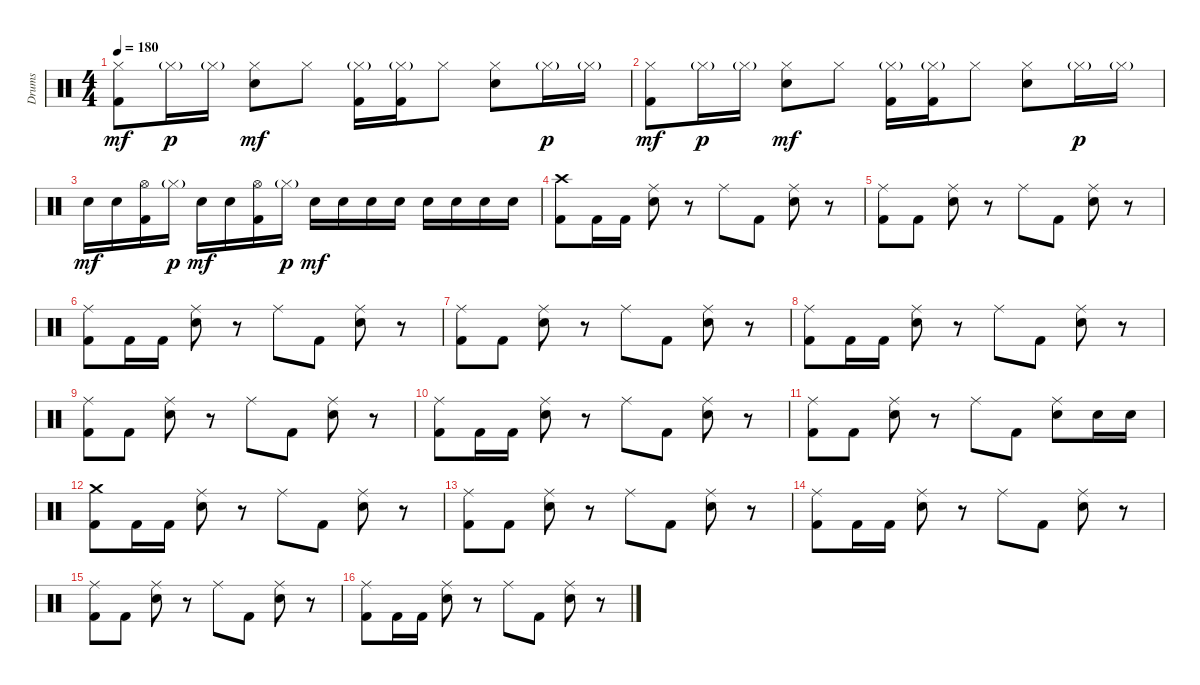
\track ("Drums" "Drums") {instrument percussion}
\staff {score}
\articulation defaults
\ts (4 4)
\tempo 180
\clef neutral
\ks c
("Hi-Hat (closed)" "Kick (hit) 2").8{dy mf} "Hi-Hat (closed)"{g}.16{dy p} "Hi-Hat (closed)"{g}.16 ("Hi-Hat (closed)" "Snare (hit) 2").8{dy mf} "Hi-Hat (closed)".8 ("Hi-Hat (closed)"{g} "Kick (hit) 2").16 ("Hi-Hat (closed)"{g} "Kick (hit) 2").16 "Hi-Hat (closed)".8 ("Hi-Hat (closed)" "Snare (hit) 2").8 "Hi-Hat (closed)"{g}.16{dy p} "Hi-Hat (closed)"{g}.16 |
("Hi-Hat (closed)" "Kick (hit) 2").8{dy mf} "Hi-Hat (closed)"{g}.16{dy p} "Hi-Hat (closed)"{g}.16 ("Hi-Hat (closed)" "Snare (hit) 2").8{dy mf} "Hi-Hat (closed)".8 ("Hi-Hat (closed)"{g} "Kick (hit) 2").16 ("Hi-Hat (closed)"{g} "Kick (hit) 2").16 "Hi-Hat (closed)".8 ("Hi-Hat (closed)" "Snare (hit) 2").8 "Hi-Hat (closed)"{g}.16{dy p} "Hi-Hat (closed)"{g}.16 |
"Snare (hit) 2".16{dy mf} "Snare (hit) 2".16 ("Hi-Hat (open)" "Kick (hit) 2").16 "Hi-Hat (closed)"{g}.16{dy p} "Snare (hit) 2".16{dy mf} "Snare (hit) 2".16 ("Hi-Hat (open)" "Kick (hit) 2").16 "Hi-Hat (closed)"{g}.16{dy p} "Snare (hit) 2".16{dy mf} "Snare (hit) 2".16 "Snare (hit) 2".16 "Snare (hit) 2".16 "Snare (hit) 2".16 "Snare (hit) 2".16 "Snare (hit) 2".16 "Snare (hit) 2".16 |
("Crash high (hit)" "Kick (hit) 2").8 "Kick (hit) 2".16 "Kick (hit) 2".16 ("Ride (middle)" "Snare (hit) 2").8 r.8 "Ride (middle)".8 "Kick (hit) 2".8 ("Ride (middle)" "Snare (hit) 2").8 r.8 |
("Ride (middle)" "Kick (hit) 2").8 "Kick (hit) 2".8 ("Ride (middle)" "Snare (hit) 2").8 r.8 "Ride (middle)".8 "Kick (hit) 2".8 ("Ride (middle)" "Snare (hit) 2").8 r.8 |
("Ride (middle)" "Kick (hit) 2").8 "Kick (hit) 2".16 "Kick (hit) 2".16 ("Ride (middle)" "Snare (hit) 2").8 r.8 "Ride (middle)".8 "Kick (hit) 2".8 ("Ride (middle)" "Snare (hit) 2").8 r.8 |
("Ride (middle)" "Kick (hit) 2").8 "Kick (hit) 2".8 ("Ride (middle)" "Snare (hit) 2").8 r.8 "Ride (middle)".8 "Kick (hit) 2".8 ("Ride (middle)" "Snare (hit) 2").8 r.8 |
("Ride (middle)" "Kick (hit) 2").8 "Kick (hit) 2".16 "Kick (hit) 2".16 ("Ride (middle)" "Snare (hit) 2").8 r.8 "Ride (middle)".8 "Kick (hit) 2".8 ("Ride (middle)" "Snare (hit) 2").8 r.8 |
("Ride (middle)" "Kick (hit) 2").8 "Kick (hit) 2".8 ("Ride (middle)" "Snare (hit) 2").8 r.8 "Ride (middle)".8 "Kick (hit) 2".8 ("Ride (middle)" "Snare (hit) 2").8 r.8 |
("Ride (middle)" "Kick (hit) 2").8 "Kick (hit) 2".16 "Kick (hit) 2".16 ("Ride (middle)" "Snare (hit) 2").8 r.8 "Ride (middle)".8 "Kick (hit) 2".8 ("Ride (middle)" "Snare (hit) 2").8 r.8 |
("Ride (middle)" "Kick (hit) 2").8 "Kick (hit) 2".8 ("Ride (middle)" "Snare (hit) 2").8 r.8 "Ride (middle)".8 "Kick (hit) 2".8 ("Ride (middle)" "Snare (hit) 2").8 "Snare (hit) 2".16 "Snare (hit) 2".16 |
("Crash medium (hit)" "Kick (hit) 2").8 "Kick (hit) 2".16 "Kick (hit) 2".16 ("Ride (middle)" "Snare (hit) 2").8 r.8 "Ride (middle)".8 "Kick (hit) 2".8 ("Ride (middle)" "Snare (hit) 2").8 r.8 |
("Ride (middle)" "Kick (hit) 2").8 "Kick (hit) 2".8 ("Ride (middle)" "Snare (hit) 2").8 r.8 "Ride (middle)".8 "Kick (hit) 2".8 ("Ride (middle)" "Snare (hit) 2").8 r.8 |
("Ride (middle)" "Kick (hit) 2").8 "Kick (hit) 2".16 "Kick (hit) 2".16 ("Ride (middle)" "Snare (hit) 2").8 r.8 "Ride (middle)".8 "Kick (hit) 2".8 ("Ride (middle)" "Snare (hit) 2").8 r.8 |
("Ride (middle)" "Kick (hit) 2").8 "Kick (hit) 2".8 ("Ride (middle)" "Snare (hit) 2").8 r.8 "Ride (middle)".8 "Kick (hit) 2".8 ("Ride (middle)" "Snare (hit) 2").8 r.8 |
("Ride (middle)" "Kick (hit) 2").8 "Kick (hit) 2".16 "Kick (hit) 2".16 ("Ride (middle)" "Snare (hit) 2").8 r.8 "Ride (middle)".8 "Kick (hit) 2".8 ("Ride (middle)" "Snare (hit) 2").8 r.8
